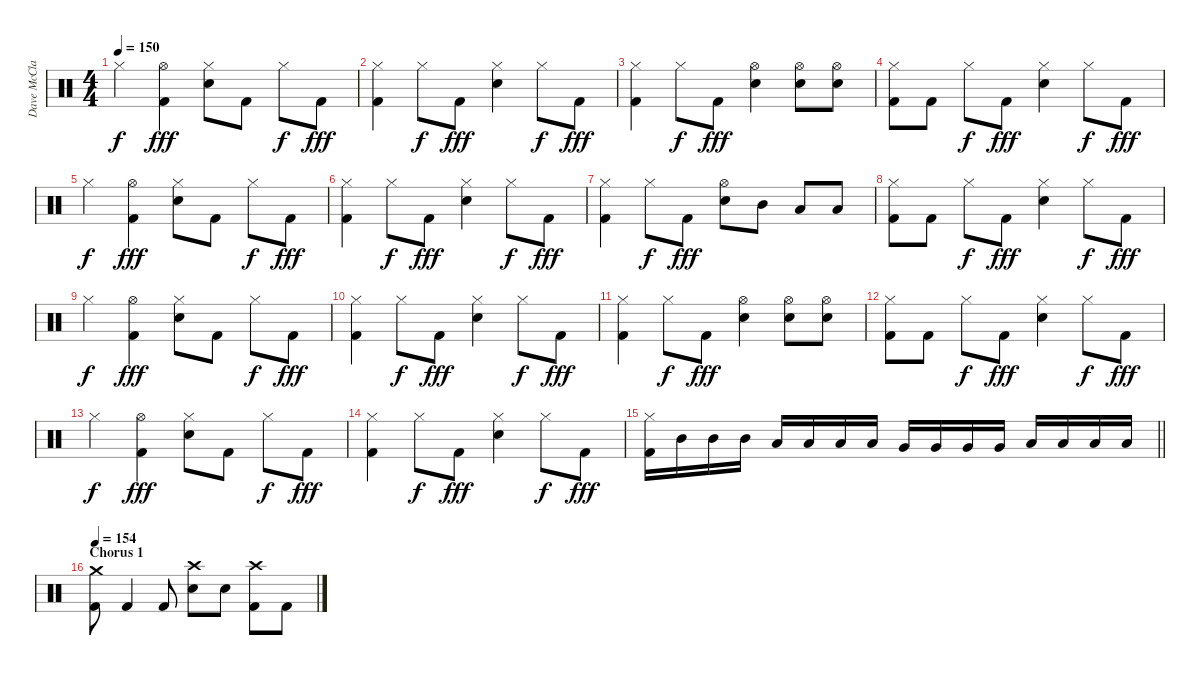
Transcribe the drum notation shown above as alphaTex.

\track ("Dave McClain" "Dave McCla") {instrument percussion}
\staff {score}
\articulation defaults
\ts (4 4)
\tempo 150
\clef neutral
\ks c "Hi-Hat (closed)".4{dy f}
("Hi-Hat (open)" "Kick (hit) 2").4{dy fff} ("Hi-Hat (closed)" "Electric Snare (hit)").8 "Kick (hit) 2".8 "Hi-Hat (closed)".8{dy f} "Kick (hit) 2".8{dy fff} |
("Hi-Hat (closed)" "Kick (hit) 2").4 "Hi-Hat (closed)".8{dy f} "Kick (hit) 2".8{dy fff} ("Hi-Hat (closed)" "Electric Snare (hit)").4 "Hi-Hat (closed)".8{dy f} "Kick (hit) 2".8{dy fff} |
("Hi-Hat (closed)" "Kick (hit) 2").4 "Hi-Hat (closed)".8{dy f} "Kick (hit) 2".8{dy fff} ("Hi-Hat (open)" "Electric Snare (hit)").4 ("Hi-Hat (open)" "Electric Snare (hit)").8 ("Hi-Hat (open)" "Electric Snare (hit)").8 |
("Hi-Hat (closed)" "Kick (hit) 2").8 "Kick (hit) 2".8 "Hi-Hat (closed)".8{dy f} "Kick (hit) 2".8{dy fff} ("Hi-Hat (closed)" "Electric Snare (hit)").4 "Hi-Hat (closed)".8{dy f} "Kick (hit) 2".8{dy fff} |
"Hi-Hat (closed)".4{dy f} ("Hi-Hat (open)" "Kick (hit) 2").4{dy fff} ("Hi-Hat (closed)" "Electric Snare (hit)").8 "Kick (hit) 2".8 "Hi-Hat (closed)".8{dy f} "Kick (hit) 2".8{dy fff} |
("Hi-Hat (closed)" "Kick (hit) 2").4 "Hi-Hat (closed)".8{dy f} "Kick (hit) 2".8{dy fff} ("Hi-Hat (closed)" "Electric Snare (hit)").4 "Hi-Hat (closed)".8{dy f} "Kick (hit) 2".8{dy fff} |
("Hi-Hat (closed)" "Kick (hit) 2").4 "Hi-Hat (closed)".8{dy f} "Kick (hit) 2".8{dy fff} ("Hi-Hat (open)" "Electric Snare (hit)").8 "Mid Tom (hit)".8 "Low Tom (hit)".8 "Low Tom (hit)".8 |
("Hi-Hat (closed)" "Kick (hit) 2").8 "Kick (hit) 2".8 "Hi-Hat (closed)".8{dy f} "Kick (hit) 2".8{dy fff} ("Hi-Hat (closed)" "Electric Snare (hit)").4 "Hi-Hat (closed)".8{dy f} "Kick (hit) 2".8{dy fff} |
"Hi-Hat (closed)".4{dy f} ("Hi-Hat (open)" "Kick (hit) 2").4{dy fff} ("Hi-Hat (closed)" "Electric Snare (hit)").8 "Kick (hit) 2".8 "Hi-Hat (closed)".8{dy f} "Kick (hit) 2".8{dy fff} |
("Hi-Hat (closed)" "Kick (hit) 2").4 "Hi-Hat (closed)".8{dy f} "Kick (hit) 2".8{dy fff} ("Hi-Hat (closed)" "Electric Snare (hit)").4 "Hi-Hat (closed)".8{dy f} "Kick (hit) 2".8{dy fff} |
("Hi-Hat (closed)" "Kick (hit) 2").4 "Hi-Hat (closed)".8{dy f} "Kick (hit) 2".8{dy fff} ("Hi-Hat (open)" "Electric Snare (hit)").4 ("Hi-Hat (open)" "Electric Snare (hit)").8 ("Hi-Hat (open)" "Electric Snare (hit)").8 |
("Hi-Hat (closed)" "Kick (hit) 2").8 "Kick (hit) 2".8 "Hi-Hat (closed)".8{dy f} "Kick (hit) 2".8{dy fff} ("Hi-Hat (closed)" "Electric Snare (hit)").4 "Hi-Hat (closed)".8{dy f} "Kick (hit) 2".8{dy fff} |
"Hi-Hat (closed)".4{dy f} ("Hi-Hat (open)" "Kick (hit) 2").4{dy fff} ("Hi-Hat (closed)" "Electric Snare (hit)").8 "Kick (hit) 2".8 "Hi-Hat (closed)".8{dy f} "Kick (hit) 2".8{dy fff} |
("Hi-Hat (closed)" "Kick (hit) 2").4 "Hi-Hat (closed)".8{dy f} "Kick (hit) 2".8{dy fff} ("Hi-Hat (closed)" "Electric Snare (hit)").4 "Hi-Hat (closed)".8{dy f} "Kick (hit) 2".8{dy fff} |
\barLineRight lightlight
("Hi-Hat (closed)" "Kick (hit) 2").16 "Mid Tom (hit)".16 "Mid Tom (hit)".16 "Mid Tom (hit)".16 "Low Tom (hit)".16 "Low Tom (hit)".16 "Low Tom (hit)".16 "Low Tom (hit)".16 "Very Low Tom (hit)".16 "Very Low Tom (hit)".16 "Very Low Tom (hit)".16 "Very Low Tom (hit)".16 "Low Floor Tom (hit)".16 "Low Floor Tom (hit)".16 "Low Floor Tom (hit)".16 "Low Floor Tom (hit)".16 |
\section ("" "Chorus 1")
\tempo 154
("Crash medium (hit)" "Kick (hit) 2").8 "Kick (hit) 2".4 "Kick (hit) 2".8 ("Crash high (hit)" "Electric Snare (hit)").8 "Electric Snare (hit)".8 ("Crash high (hit)" "Kick (hit) 2").8 "Kick (hit) 2".8
